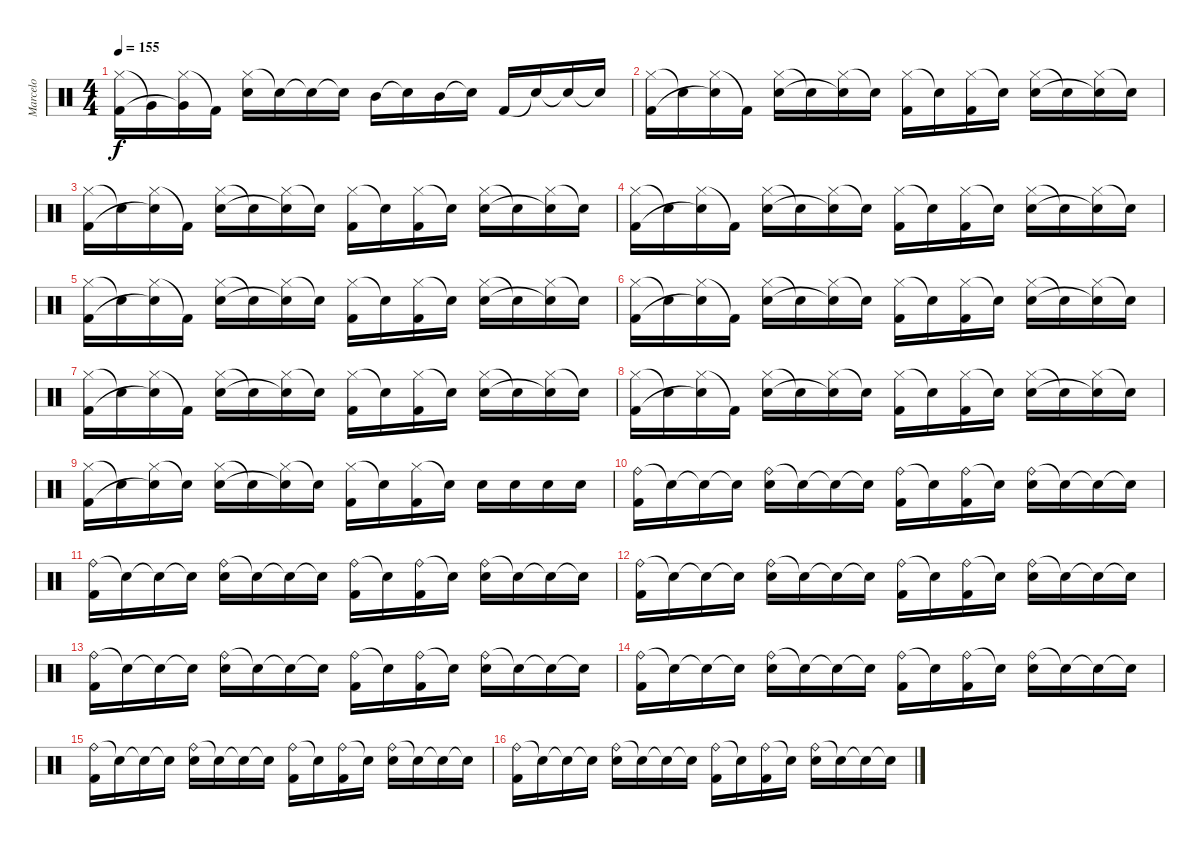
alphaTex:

\track ("Marcelo" "Marcelo") {instrument percussion}
\staff {score}
\articulation defaults
\ts (4 4)
\tempo 155
\clef neutral
\ks c
("Hi-Hat (closed)" "Kick (hit) 2").16{dy f} "Very Low Tom (hit)"{t}.16 ("Hi-Hat (closed)" "Very Low Tom (hit)"{t}).16 "Kick (hit) 2"{t}.16 ("Hi-Hat (closed)" "Snare (hit) 2").16 "Snare (hit)"{t}.16 "Snare (hit)"{t}.16 "Snare (hit)"{t}.16 "Mid Tom (hit)".16 "Snare (hit)"{t}.16 "Mid Tom (hit)".16 "Snare (hit)"{t}.16 "Kick (hit) 2".16 "Snare (hit)"{t}.16 "Snare (hit)"{t}.16 "Snare (hit)"{t}.16 |
("Hi-Hat (closed)" "Kick (hit) 2").16 "Snare (hit) 2"{t}.16 ("Hi-Hat (closed)" "Snare (hit) 2"{t}).16 "Kick (hit) 2"{t}.16 ("Hi-Hat (closed)" "Snare (hit) 2").16 "Snare (hit)"{t}.16 ("Hi-Hat (closed)" "Snare (hit)"{t}).16 "Snare (hit)"{t}.16 ("Hi-Hat (closed)" "Kick (hit) 2").16 "Snare (hit)"{t}.16 ("Hi-Hat (closed)" "Kick (hit) 2").16 "Snare (hit)"{t}.16 ("Hi-Hat (closed)" "Snare (hit) 2").16 "Snare (hit)"{t}.16 ("Hi-Hat (closed)" "Snare (hit)"{t}).16 "Snare (hit)"{t}.16 |
("Hi-Hat (closed)" "Kick (hit) 2").16 "Snare (hit) 2"{t}.16 ("Hi-Hat (closed)" "Snare (hit) 2"{t}).16 "Kick (hit) 2"{t}.16 ("Hi-Hat (closed)" "Snare (hit) 2").16 "Snare (hit)"{t}.16 ("Hi-Hat (closed)" "Snare (hit)"{t}).16 "Snare (hit)"{t}.16 ("Hi-Hat (closed)" "Kick (hit) 2").16 "Snare (hit)"{t}.16 ("Hi-Hat (closed)" "Kick (hit) 2").16 "Snare (hit)"{t}.16 ("Hi-Hat (closed)" "Snare (hit) 2").16 "Snare (hit)"{t}.16 ("Hi-Hat (closed)" "Snare (hit)"{t}).16 "Snare (hit)"{t}.16 |
("Hi-Hat (closed)" "Kick (hit) 2").16 "Snare (hit) 2"{t}.16 ("Hi-Hat (closed)" "Snare (hit) 2"{t}).16 "Kick (hit) 2"{t}.16 ("Hi-Hat (closed)" "Snare (hit) 2").16 "Snare (hit)"{t}.16 ("Hi-Hat (closed)" "Snare (hit)"{t}).16 "Snare (hit)"{t}.16 ("Hi-Hat (closed)" "Kick (hit) 2").16 "Snare (hit)"{t}.16 ("Hi-Hat (closed)" "Kick (hit) 2").16 "Snare (hit)"{t}.16 ("Hi-Hat (closed)" "Snare (hit) 2").16 "Snare (hit)"{t}.16 ("Hi-Hat (closed)" "Snare (hit)"{t}).16 "Snare (hit)"{t}.16 |
("Hi-Hat (closed)" "Kick (hit) 2").16 "Snare (hit) 2"{t}.16 ("Hi-Hat (closed)" "Snare (hit) 2"{t}).16 "Kick (hit) 2"{t}.16 ("Hi-Hat (closed)" "Snare (hit) 2").16 "Snare (hit)"{t}.16 ("Hi-Hat (closed)" "Snare (hit)"{t}).16 "Snare (hit)"{t}.16 ("Hi-Hat (closed)" "Kick (hit) 2").16 "Snare (hit)"{t}.16 ("Hi-Hat (closed)" "Kick (hit) 2").16 "Snare (hit)"{t}.16 ("Hi-Hat (closed)" "Snare (hit) 2").16 "Snare (hit)"{t}.16 ("Hi-Hat (closed)" "Snare (hit)"{t}).16 "Snare (hit)"{t}.16 |
("Hi-Hat (closed)" "Kick (hit) 2").16 "Snare (hit) 2"{t}.16 ("Hi-Hat (closed)" "Snare (hit) 2"{t}).16 "Kick (hit) 2"{t}.16 ("Hi-Hat (closed)" "Snare (hit) 2").16 "Snare (hit)"{t}.16 ("Hi-Hat (closed)" "Snare (hit)"{t}).16 "Snare (hit)"{t}.16 ("Hi-Hat (closed)" "Kick (hit) 2").16 "Snare (hit)"{t}.16 ("Hi-Hat (closed)" "Kick (hit) 2").16 "Snare (hit)"{t}.16 ("Hi-Hat (closed)" "Snare (hit) 2").16 "Snare (hit)"{t}.16 ("Hi-Hat (closed)" "Snare (hit)"{t}).16 "Snare (hit)"{t}.16 |
("Hi-Hat (closed)" "Kick (hit) 2").16 "Snare (hit) 2"{t}.16 ("Hi-Hat (closed)" "Snare (hit) 2"{t}).16 "Kick (hit) 2"{t}.16 ("Hi-Hat (closed)" "Snare (hit) 2").16 "Snare (hit)"{t}.16 ("Hi-Hat (closed)" "Snare (hit)"{t}).16 "Snare (hit)"{t}.16 ("Hi-Hat (closed)" "Kick (hit) 2").16 "Snare (hit)"{t}.16 ("Hi-Hat (closed)" "Kick (hit) 2").16 "Snare (hit)"{t}.16 ("Hi-Hat (closed)" "Snare (hit) 2").16 "Snare (hit)"{t}.16 ("Hi-Hat (closed)" "Snare (hit)"{t}).16 "Snare (hit)"{t}.16 |
("Hi-Hat (closed)" "Kick (hit) 2").16 "Snare (hit) 2"{t}.16 ("Hi-Hat (closed)" "Snare (hit) 2"{t}).16 "Kick (hit) 2"{t}.16 ("Hi-Hat (closed)" "Snare (hit) 2").16 "Snare (hit)"{t}.16 ("Hi-Hat (closed)" "Snare (hit)"{t}).16 "Snare (hit)"{t}.16 ("Hi-Hat (closed)" "Kick (hit) 2").16 "Snare (hit)"{t}.16 ("Hi-Hat (closed)" "Kick (hit) 2").16 "Snare (hit)"{t}.16 ("Hi-Hat (closed)" "Snare (hit) 2").16 "Snare (hit)"{t}.16 ("Hi-Hat (closed)" "Snare (hit)"{t}).16 "Snare (hit)"{t}.16 |
("Hi-Hat (closed)" "Kick (hit) 2").16 "Snare (hit)"{t}.16 ("Hi-Hat (closed)" "Snare (hit)"{t}).16 "Snare (hit)"{t}.16 ("Hi-Hat (closed)" "Snare (hit) 2").16 "Snare (hit)"{t}.16 ("Hi-Hat (closed)" "Snare (hit)"{t}).16 "Snare (hit)"{t}.16 ("Hi-Hat (closed)" "Kick (hit) 2").16 "Snare (hit)"{t}.16 ("Hi-Hat (closed)" "Kick (hit) 2").16 "Snare (hit)"{t}.16 "Snare (hit) 2".16 "Snare (hit) 2".16 "Snare (hit) 2".16 "Snare (hit) 2".16 |
("Ride (bell)" "Kick (hit) 2").16 "Snare (hit)"{t}.16 "Snare (hit)"{t}.16 "Snare (hit)"{t}.16 ("Ride (bell)" "Snare (hit) 2").16 "Snare (hit)"{t}.16 "Snare (hit)"{t}.16 "Snare (hit)"{t}.16 ("Ride (bell)" "Kick (hit) 2").16 "Snare (hit)"{t}.16 ("Ride (bell)" "Kick (hit) 2").16 "Snare (hit)"{t}.16 ("Ride (bell)" "Snare (hit) 2").16 "Snare (hit)"{t}.16 "Snare (hit)"{t}.16 "Snare (hit)"{t}.16 |
("Ride (bell)" "Kick (hit) 2").16 "Snare (hit)"{t}.16 "Snare (hit)"{t}.16 "Snare (hit)"{t}.16 ("Ride (bell)" "Snare (hit) 2").16 "Snare (hit)"{t}.16 "Snare (hit)"{t}.16 "Snare (hit)"{t}.16 ("Ride (bell)" "Kick (hit) 2").16 "Snare (hit)"{t}.16 ("Ride (bell)" "Kick (hit) 2").16 "Snare (hit)"{t}.16 ("Ride (bell)" "Snare (hit) 2").16 "Snare (hit)"{t}.16 "Snare (hit)"{t}.16 "Snare (hit)"{t}.16 |
("Ride (bell)" "Kick (hit) 2").16 "Snare (hit)"{t}.16 "Snare (hit)"{t}.16 "Snare (hit)"{t}.16 ("Ride (bell)" "Snare (hit) 2").16 "Snare (hit)"{t}.16 "Snare (hit)"{t}.16 "Snare (hit)"{t}.16 ("Ride (bell)" "Kick (hit) 2").16 "Snare (hit)"{t}.16 ("Ride (bell)" "Kick (hit) 2").16 "Snare (hit)"{t}.16 ("Ride (bell)" "Snare (hit) 2").16 "Snare (hit)"{t}.16 "Snare (hit)"{t}.16 "Snare (hit)"{t}.16 |
("Ride (bell)" "Kick (hit) 2").16 "Snare (hit)"{t}.16 "Snare (hit)"{t}.16 "Snare (hit)"{t}.16 ("Ride (bell)" "Snare (hit) 2").16 "Snare (hit)"{t}.16 "Snare (hit)"{t}.16 "Snare (hit)"{t}.16 ("Ride (bell)" "Kick (hit) 2").16 "Snare (hit)"{t}.16 ("Ride (bell)" "Kick (hit) 2").16 "Snare (hit)"{t}.16 ("Ride (bell)" "Snare (hit) 2").16 "Snare (hit)"{t}.16 "Snare (hit)"{t}.16 "Snare (hit)"{t}.16 |
("Ride (bell)" "Kick (hit) 2").16 "Snare (hit)"{t}.16 "Snare (hit)"{t}.16 "Snare (hit)"{t}.16 ("Ride (bell)" "Snare (hit) 2").16 "Snare (hit)"{t}.16 "Snare (hit)"{t}.16 "Snare (hit)"{t}.16 ("Ride (bell)" "Kick (hit) 2").16 "Snare (hit)"{t}.16 ("Ride (bell)" "Kick (hit) 2").16 "Snare (hit)"{t}.16 ("Ride (bell)" "Snare (hit) 2").16 "Snare (hit)"{t}.16 "Snare (hit)"{t}.16 "Snare (hit)"{t}.16 |
("Ride (bell)" "Kick (hit) 2").16 "Snare (hit)"{t}.16 "Snare (hit)"{t}.16 "Snare (hit)"{t}.16 ("Ride (bell)" "Snare (hit) 2").16 "Snare (hit)"{t}.16 "Snare (hit)"{t}.16 "Snare (hit)"{t}.16 ("Ride (bell)" "Kick (hit) 2").16 "Snare (hit)"{t}.16 ("Ride (bell)" "Kick (hit) 2").16 "Snare (hit)"{t}.16 ("Ride (bell)" "Snare (hit) 2").16 "Snare (hit)"{t}.16 "Snare (hit)"{t}.16 "Snare (hit)"{t}.16 |
("Ride (bell)" "Kick (hit) 2").16 "Snare (hit)"{t}.16 "Snare (hit)"{t}.16 "Snare (hit)"{t}.16 ("Ride (bell)" "Snare (hit) 2").16 "Snare (hit)"{t}.16 "Snare (hit)"{t}.16 "Snare (hit)"{t}.16 ("Ride (bell)" "Kick (hit) 2").16 "Snare (hit)"{t}.16 ("Ride (bell)" "Kick (hit) 2").16 "Snare (hit)"{t}.16 ("Ride (bell)" "Snare (hit) 2").16 "Snare (hit)"{t}.16 "Snare (hit)"{t}.16 "Snare (hit)"{t}.16
